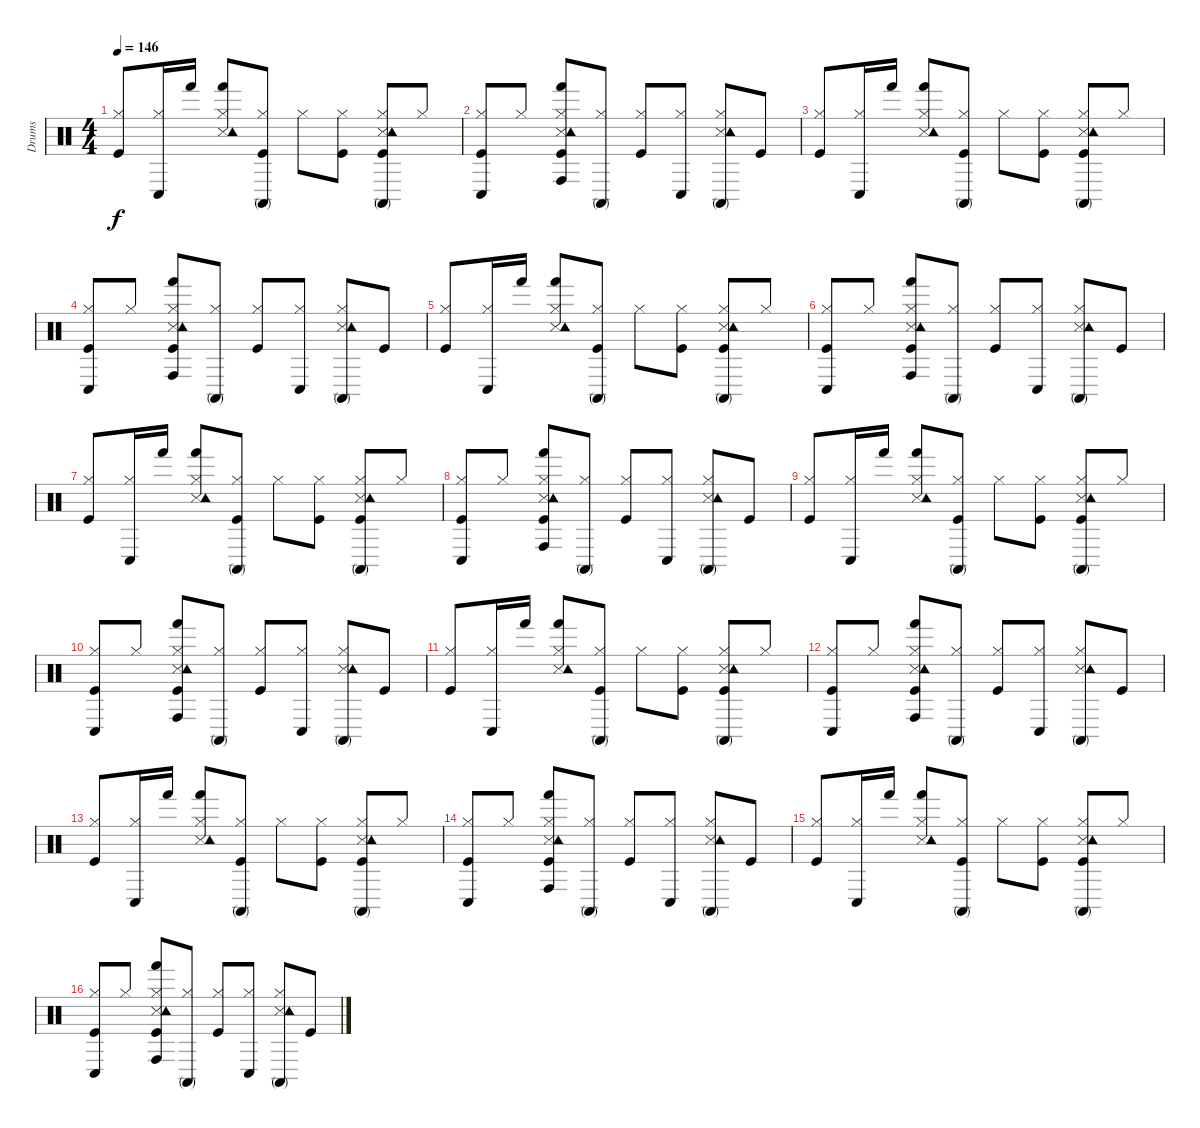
\track ("Drums" "Drums") {instrument percussion}
\staff {score}
\articulation defaults
\ts (4 4)
\tempo 146
\clef neutral
\ks c
("Kick (hit)" "Hi-Hat (closed)").8{dy f} ("Hi-Hat (closed)" "Conga low (hit)").16 "Hand (hit)".16 ("Snare (side stick) 3" "Hi-Hat (closed)" "Tambourine (hit)" "Hand (hit)").8 ("Kick (hit)" "Hi-Hat (closed)" "Conga high (mute)").8 "Hi-Hat (closed)".8 ("Kick (hit)" "Hi-Hat (closed)").8 ("Kick (hit)" "Snare (side stick) 3" "Hi-Hat (closed)" "Tambourine (hit)" "Conga high (mute)").8 "Hi-Hat (closed)".8 |
("Kick (hit)" "Hi-Hat (closed)" "Conga low (hit)").8 "Hi-Hat (closed)".8 ("Kick (hit)" "Snare (side stick) 3" "Hi-Hat (closed)" "Tambourine (hit)" "Hand (hit)" "Conga high (hit)").8 ("Hi-Hat (closed)" "Conga high (mute)").8 ("Kick (hit)" "Hi-Hat (closed)").8 ("Hi-Hat (closed)" "Conga low (hit)").8 ("Snare (side stick) 3" "Hi-Hat (closed)" "Tambourine (hit)" "Conga high (mute)").8 "Kick (hit)".8 |
("Kick (hit)" "Hi-Hat (closed)").8 ("Hi-Hat (closed)" "Conga low (hit)").16 "Hand (hit)".16 ("Snare (side stick) 3" "Hi-Hat (closed)" "Tambourine (hit)" "Hand (hit)").8 ("Kick (hit)" "Hi-Hat (closed)" "Conga high (mute)").8 "Hi-Hat (closed)".8 ("Kick (hit)" "Hi-Hat (closed)").8 ("Kick (hit)" "Snare (side stick) 3" "Hi-Hat (closed)" "Tambourine (hit)" "Conga high (mute)").8 "Hi-Hat (closed)".8 |
("Kick (hit)" "Hi-Hat (closed)" "Conga low (hit)").8 "Hi-Hat (closed)".8 ("Kick (hit)" "Snare (side stick) 3" "Hi-Hat (closed)" "Tambourine (hit)" "Hand (hit)" "Conga high (hit)").8 ("Hi-Hat (closed)" "Conga high (mute)").8 ("Kick (hit)" "Hi-Hat (closed)").8 ("Hi-Hat (closed)" "Conga low (hit)").8 ("Snare (side stick) 3" "Hi-Hat (closed)" "Tambourine (hit)" "Conga high (mute)").8 "Kick (hit)".8 |
("Kick (hit)" "Hi-Hat (closed)").8 ("Hi-Hat (closed)" "Conga low (hit)").16 "Hand (hit)".16 ("Snare (side stick) 3" "Hi-Hat (closed)" "Tambourine (hit)" "Hand (hit)").8 ("Kick (hit)" "Hi-Hat (closed)" "Conga high (mute)").8 "Hi-Hat (closed)".8 ("Kick (hit)" "Hi-Hat (closed)").8 ("Kick (hit)" "Snare (side stick) 3" "Hi-Hat (closed)" "Tambourine (hit)" "Conga high (mute)").8 "Hi-Hat (closed)".8 |
("Kick (hit)" "Hi-Hat (closed)" "Conga low (hit)").8 "Hi-Hat (closed)".8 ("Kick (hit)" "Snare (side stick) 3" "Hi-Hat (closed)" "Tambourine (hit)" "Hand (hit)" "Conga high (hit)").8 ("Hi-Hat (closed)" "Conga high (mute)").8 ("Kick (hit)" "Hi-Hat (closed)").8 ("Hi-Hat (closed)" "Conga low (hit)").8 ("Snare (side stick) 3" "Hi-Hat (closed)" "Tambourine (hit)" "Conga high (mute)").8 "Kick (hit)".8 |
("Kick (hit)" "Hi-Hat (closed)").8 ("Hi-Hat (closed)" "Conga low (hit)").16 "Hand (hit)".16 ("Snare (side stick) 3" "Hi-Hat (closed)" "Tambourine (hit)" "Hand (hit)").8 ("Kick (hit)" "Hi-Hat (closed)" "Conga high (mute)").8 "Hi-Hat (closed)".8 ("Kick (hit)" "Hi-Hat (closed)").8 ("Kick (hit)" "Snare (side stick) 3" "Hi-Hat (closed)" "Tambourine (hit)" "Conga high (mute)").8 "Hi-Hat (closed)".8 |
("Kick (hit)" "Hi-Hat (closed)" "Conga low (hit)").8 "Hi-Hat (closed)".8 ("Kick (hit)" "Snare (side stick) 3" "Hi-Hat (closed)" "Tambourine (hit)" "Hand (hit)" "Conga high (hit)").8 ("Hi-Hat (closed)" "Conga high (mute)").8 ("Kick (hit)" "Hi-Hat (closed)").8 ("Hi-Hat (closed)" "Conga low (hit)").8 ("Snare (side stick) 3" "Hi-Hat (closed)" "Tambourine (hit)" "Conga high (mute)").8 "Kick (hit)".8 |
("Kick (hit)" "Hi-Hat (closed)").8 ("Hi-Hat (closed)" "Conga low (hit)").16 "Hand (hit)".16 ("Snare (side stick) 3" "Hi-Hat (closed)" "Tambourine (hit)" "Hand (hit)").8 ("Kick (hit)" "Hi-Hat (closed)" "Conga high (mute)").8 "Hi-Hat (closed)".8 ("Kick (hit)" "Hi-Hat (closed)").8 ("Kick (hit)" "Snare (side stick) 3" "Hi-Hat (closed)" "Tambourine (hit)" "Conga high (mute)").8 "Hi-Hat (closed)".8 |
("Kick (hit)" "Hi-Hat (closed)" "Conga low (hit)").8 "Hi-Hat (closed)".8 ("Kick (hit)" "Snare (side stick) 3" "Hi-Hat (closed)" "Tambourine (hit)" "Hand (hit)" "Conga high (hit)").8 ("Hi-Hat (closed)" "Conga high (mute)").8 ("Kick (hit)" "Hi-Hat (closed)").8 ("Hi-Hat (closed)" "Conga low (hit)").8 ("Snare (side stick) 3" "Hi-Hat (closed)" "Tambourine (hit)" "Conga high (mute)").8 "Kick (hit)".8 |
("Kick (hit)" "Hi-Hat (closed)").8 ("Hi-Hat (closed)" "Conga low (hit)").16 "Hand (hit)".16 ("Snare (side stick) 3" "Hi-Hat (closed)" "Tambourine (hit)" "Hand (hit)").8 ("Kick (hit)" "Hi-Hat (closed)" "Conga high (mute)").8 "Hi-Hat (closed)".8 ("Kick (hit)" "Hi-Hat (closed)").8 ("Kick (hit)" "Snare (side stick) 3" "Hi-Hat (closed)" "Tambourine (hit)" "Conga high (mute)").8 "Hi-Hat (closed)".8 |
("Kick (hit)" "Hi-Hat (closed)" "Conga low (hit)").8 "Hi-Hat (closed)".8 ("Kick (hit)" "Snare (side stick) 3" "Hi-Hat (closed)" "Tambourine (hit)" "Hand (hit)" "Conga high (hit)").8 ("Hi-Hat (closed)" "Conga high (mute)").8 ("Kick (hit)" "Hi-Hat (closed)").8 ("Hi-Hat (closed)" "Conga low (hit)").8 ("Snare (side stick) 3" "Hi-Hat (closed)" "Tambourine (hit)" "Conga high (mute)").8 "Kick (hit)".8 |
("Kick (hit)" "Hi-Hat (closed)").8 ("Hi-Hat (closed)" "Conga low (hit)").16 "Hand (hit)".16 ("Snare (side stick) 3" "Hi-Hat (closed)" "Tambourine (hit)" "Hand (hit)").8 ("Kick (hit)" "Hi-Hat (closed)" "Conga high (mute)").8 "Hi-Hat (closed)".8 ("Kick (hit)" "Hi-Hat (closed)").8 ("Kick (hit)" "Snare (side stick) 3" "Hi-Hat (closed)" "Tambourine (hit)" "Conga high (mute)").8 "Hi-Hat (closed)".8 |
("Kick (hit)" "Hi-Hat (closed)" "Conga low (hit)").8 "Hi-Hat (closed)".8 ("Kick (hit)" "Snare (side stick) 3" "Hi-Hat (closed)" "Tambourine (hit)" "Hand (hit)" "Conga high (hit)").8 ("Hi-Hat (closed)" "Conga high (mute)").8 ("Kick (hit)" "Hi-Hat (closed)").8 ("Hi-Hat (closed)" "Conga low (hit)").8 ("Snare (side stick) 3" "Hi-Hat (closed)" "Tambourine (hit)" "Conga high (mute)").8 "Kick (hit)".8 |
("Kick (hit)" "Hi-Hat (closed)").8 ("Hi-Hat (closed)" "Conga low (hit)").16 "Hand (hit)".16 ("Snare (side stick) 3" "Hi-Hat (closed)" "Tambourine (hit)" "Hand (hit)").8 ("Kick (hit)" "Hi-Hat (closed)" "Conga high (mute)").8 "Hi-Hat (closed)".8 ("Kick (hit)" "Hi-Hat (closed)").8 ("Kick (hit)" "Snare (side stick) 3" "Hi-Hat (closed)" "Tambourine (hit)" "Conga high (mute)").8 "Hi-Hat (closed)".8 |
("Kick (hit)" "Hi-Hat (closed)" "Conga low (hit)").8 "Hi-Hat (closed)".8 ("Kick (hit)" "Snare (side stick) 3" "Hi-Hat (closed)" "Tambourine (hit)" "Hand (hit)" "Conga high (hit)").8 ("Hi-Hat (closed)" "Conga high (mute)").8 ("Kick (hit)" "Hi-Hat (closed)").8 ("Hi-Hat (closed)" "Conga low (hit)").8 ("Snare (side stick) 3" "Hi-Hat (closed)" "Tambourine (hit)" "Conga high (mute)").8 "Kick (hit)".8
